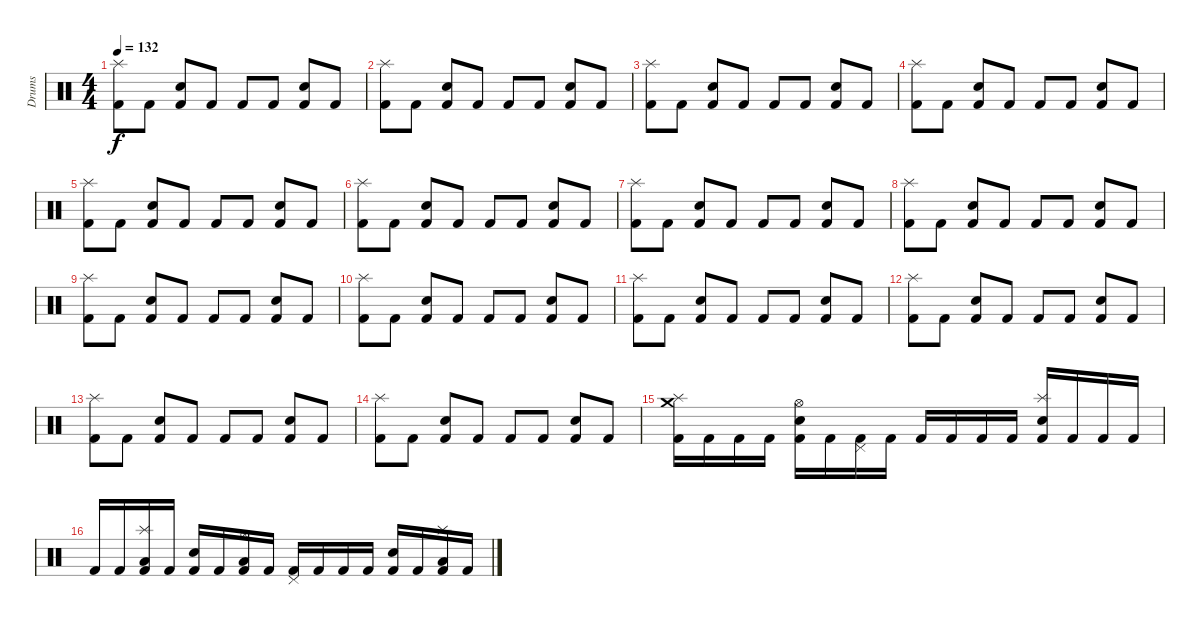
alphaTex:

\track ("Drums" "Drums") {instrument percussion}
\staff {score}
\articulation defaults
\ts (4 4)
\tempo 132
\clef neutral
\ks c
("Kick (hit) 2" "Splash (hit)").8{dy f} "Kick (hit) 2".8 ("Kick (hit) 2" "Electric Snare (hit)").8 "Kick (hit) 2".8 "Kick (hit) 2".8 "Kick (hit) 2".8 ("Kick (hit) 2" "Electric Snare (hit)").8 "Kick (hit) 2".8 |
("Kick (hit) 2" "Splash (hit)").8 "Kick (hit) 2".8 ("Kick (hit) 2" "Electric Snare (hit)").8 "Kick (hit) 2".8 "Kick (hit) 2".8 "Kick (hit) 2".8 ("Kick (hit) 2" "Electric Snare (hit)").8 "Kick (hit) 2".8 |
("Kick (hit) 2" "Splash (hit)").8 "Kick (hit) 2".8 ("Kick (hit) 2" "Electric Snare (hit)").8 "Kick (hit) 2".8 "Kick (hit) 2".8 "Kick (hit) 2".8 ("Kick (hit) 2" "Electric Snare (hit)").8 "Kick (hit) 2".8 |
("Kick (hit) 2" "Splash (hit)").8 "Kick (hit) 2".8 ("Kick (hit) 2" "Electric Snare (hit)").8 "Kick (hit) 2".8 "Kick (hit) 2".8 "Kick (hit) 2".8 ("Kick (hit) 2" "Electric Snare (hit)").8 "Kick (hit) 2".8 |
("Kick (hit) 2" "Splash (hit)").8 "Kick (hit) 2".8 ("Kick (hit) 2" "Electric Snare (hit)").8 "Kick (hit) 2".8 "Kick (hit) 2".8 "Kick (hit) 2".8 ("Kick (hit) 2" "Electric Snare (hit)").8 "Kick (hit) 2".8 |
("Kick (hit) 2" "Splash (hit)").8 "Kick (hit) 2".8 ("Kick (hit) 2" "Electric Snare (hit)").8 "Kick (hit) 2".8 "Kick (hit) 2".8 "Kick (hit) 2".8 ("Kick (hit) 2" "Electric Snare (hit)").8 "Kick (hit) 2".8 |
("Kick (hit) 2" "Splash (hit)").8 "Kick (hit) 2".8 ("Kick (hit) 2" "Electric Snare (hit)").8 "Kick (hit) 2".8 "Kick (hit) 2".8 "Kick (hit) 2".8 ("Kick (hit) 2" "Electric Snare (hit)").8 "Kick (hit) 2".8 |
("Kick (hit) 2" "Splash (hit)").8 "Kick (hit) 2".8 ("Kick (hit) 2" "Electric Snare (hit)").8 "Kick (hit) 2".8 "Kick (hit) 2".8 "Kick (hit) 2".8 ("Kick (hit) 2" "Electric Snare (hit)").8 "Kick (hit) 2".8 |
("Kick (hit) 2" "Splash (hit)").8 "Kick (hit) 2".8 ("Kick (hit) 2" "Electric Snare (hit)").8 "Kick (hit) 2".8 "Kick (hit) 2".8 "Kick (hit) 2".8 ("Kick (hit) 2" "Electric Snare (hit)").8 "Kick (hit) 2".8 |
("Kick (hit) 2" "Splash (hit)").8 "Kick (hit) 2".8 ("Kick (hit) 2" "Electric Snare (hit)").8 "Kick (hit) 2".8 "Kick (hit) 2".8 "Kick (hit) 2".8 ("Kick (hit) 2" "Electric Snare (hit)").8 "Kick (hit) 2".8 |
("Kick (hit) 2" "Splash (hit)").8 "Kick (hit) 2".8 ("Kick (hit) 2" "Electric Snare (hit)").8 "Kick (hit) 2".8 "Kick (hit) 2".8 "Kick (hit) 2".8 ("Kick (hit) 2" "Electric Snare (hit)").8 "Kick (hit) 2".8 |
("Kick (hit) 2" "Splash (hit)").8 "Kick (hit) 2".8 ("Kick (hit) 2" "Electric Snare (hit)").8 "Kick (hit) 2".8 "Kick (hit) 2".8 "Kick (hit) 2".8 ("Kick (hit) 2" "Electric Snare (hit)").8 "Kick (hit) 2".8 |
("Kick (hit) 2" "Splash (hit)").8 "Kick (hit) 2".8 ("Kick (hit) 2" "Electric Snare (hit)").8 "Kick (hit) 2".8 "Kick (hit) 2".8 "Kick (hit) 2".8 ("Kick (hit) 2" "Electric Snare (hit)").8 "Kick (hit) 2".8 |
("Kick (hit) 2" "Splash (hit)").8 "Kick (hit) 2".8 ("Kick (hit) 2" "Electric Snare (hit)").8 "Kick (hit) 2".8 "Kick (hit) 2".8 "Kick (hit) 2".8 ("Kick (hit) 2" "Electric Snare (hit)").8 "Kick (hit) 2".8 |
("Kick (hit) 2" "Splash (hit)" "Crash medium (hit)").16 "Kick (hit) 2".16 "Kick (hit) 2".16 "Kick (hit) 2".16 ("Kick (hit) 2" "Electric Snare (hit)" "Hi-Hat (open)").16 "Kick (hit) 2".16 ("Kick (hit) 2" "Pedal Hi-Hat (hit)").16 "Kick (hit) 2".16 "Kick (hit) 2".16 "Kick (hit) 2".16 "Kick (hit) 2".16 "Kick (hit) 2".16 ("Kick (hit) 2" "Splash (hit)" "Snare (hit) 2").16 "Kick (hit) 2".16 "Kick (hit) 2".16 "Kick (hit) 2".16 |
"Kick (hit) 2".16 "Kick (hit) 2".16 ("Kick (hit) 2" "Splash (hit)" "Low Tom (hit)").16 "Kick (hit) 2".16 ("Kick (hit) 2" "Electric Snare (hit)").16 "Kick (hit) 2".16 ("Kick (hit) 2" "Hi-Hat (open)" "Low Tom (hit)").16 "Kick (hit) 2".16 ("Kick (hit) 2" "Pedal Hi-Hat (hit)").16 "Kick (hit) 2".16 "Kick (hit) 2".16 "Kick (hit) 2".16 ("Kick (hit) 2" "Electric Snare (hit)").16 "Kick (hit) 2".16 ("Kick (hit) 2" "Splash (hit)" "Low Tom (hit)").16 "Kick (hit) 2".16
